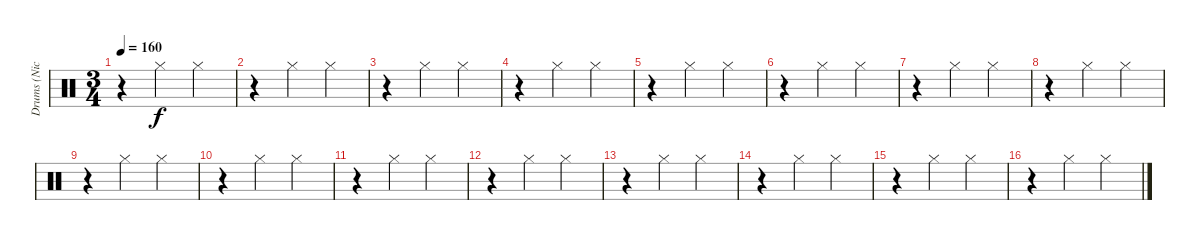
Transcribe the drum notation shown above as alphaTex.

\track ("Drums (Nicko)" "Drums (Nic") {instrument percussion}
\staff {score}
\articulation defaults
\ts (3 4)
\tempo 160
\clef neutral
\ks c
r.4{dy f} "Hi-Hat (closed)".4 "Hi-Hat (closed)".4 |
r.4 "Hi-Hat (closed)".4 "Hi-Hat (closed)".4 |
r.4 "Hi-Hat (closed)".4 "Hi-Hat (closed)".4 |
r.4 "Hi-Hat (closed)".4 "Hi-Hat (closed)".4 |
r.4 "Hi-Hat (closed)".4 "Hi-Hat (closed)".4 |
r.4 "Hi-Hat (closed)".4 "Hi-Hat (closed)".4 |
r.4 "Hi-Hat (closed)".4 "Hi-Hat (closed)".4 |
r.4 "Hi-Hat (closed)".4 "Hi-Hat (closed)".4 |
r.4 "Hi-Hat (closed)".4 "Hi-Hat (closed)".4 |
r.4 "Hi-Hat (closed)".4 "Hi-Hat (closed)".4 |
r.4 "Hi-Hat (closed)".4 "Hi-Hat (closed)".4 |
r.4 "Hi-Hat (closed)".4 "Hi-Hat (closed)".4 |
r.4 "Hi-Hat (closed)".4 "Hi-Hat (closed)".4 |
r.4 "Hi-Hat (closed)".4 "Hi-Hat (closed)".4 |
r.4 "Hi-Hat (closed)".4 "Hi-Hat (closed)".4 |
r.4 "Hi-Hat (closed)".4 "Hi-Hat (closed)".4
